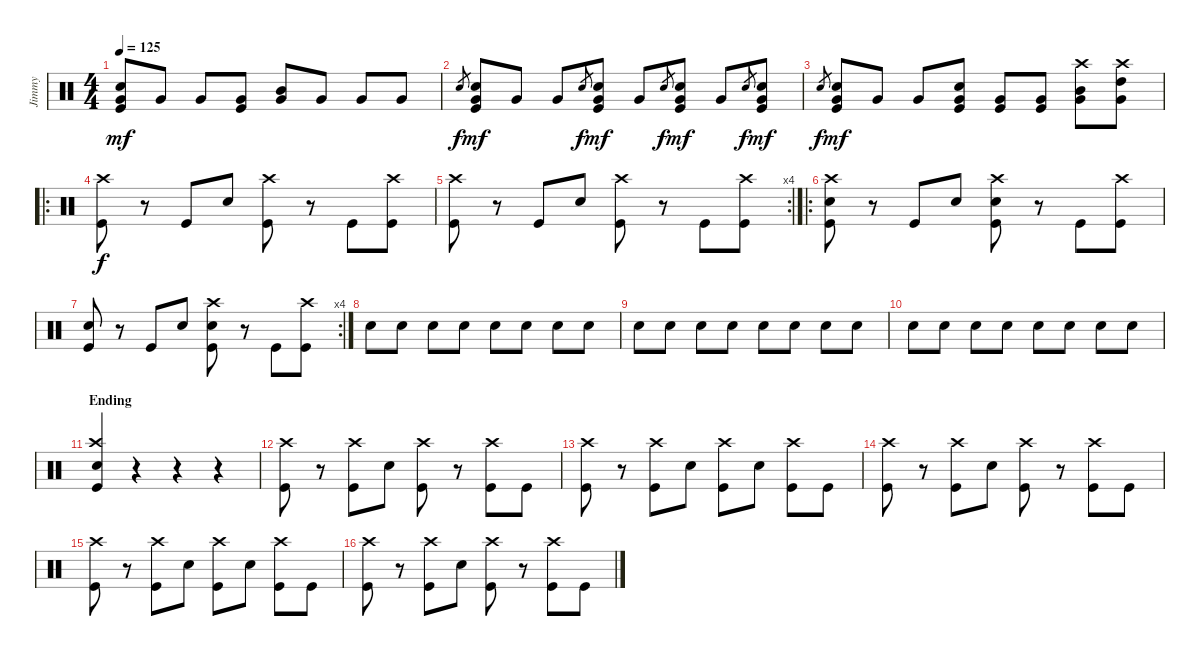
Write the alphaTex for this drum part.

\track ("Jimmy" "Jimmy") {instrument percussion}
\staff {score}
\articulation defaults
\ts (4 4)
\tempo 125
\clef neutral
\ks c
("Kick (hit)" "Electric Snare (hit)" "Very Low Tom (hit)").8{dy mf} "Very Low Tom (hit)".8 "Very Low Tom (hit)".8 ("Kick (hit)" "Very Low Tom (hit)").8 ("Mid Tom (hit)" "Very Low Tom (hit)").8 "Very Low Tom (hit)".8 "Very Low Tom (hit)".8 "Very Low Tom (hit)".8 |
"Electric Snare (hit)".8{gr dy f} ("Kick (hit)" "Electric Snare (hit)" "Very Low Tom (hit)").8{dy mf} "Very Low Tom (hit)".8 "Very Low Tom (hit)".8 "Electric Snare (hit)".8{gr dy f} ("Kick (hit)" "Electric Snare (hit)" "Very Low Tom (hit)").8{dy mf} "Very Low Tom (hit)".8 "Electric Snare (hit)".8{gr dy f} ("Kick (hit)" "Electric Snare (hit)" "Very Low Tom (hit)").8{dy mf} "Very Low Tom (hit)".8 "Electric Snare (hit)".8{gr dy f} ("Kick (hit)" "Electric Snare (hit)" "Very Low Tom (hit)").8{dy mf} |
"Electric Snare (hit)".8{gr dy f} ("Kick (hit)" "Electric Snare (hit)" "Very Low Tom (hit)").8{dy mf} "Very Low Tom (hit)".8 "Very Low Tom (hit)".8 ("Kick (hit)" "Electric Snare (hit)" "Very Low Tom (hit)").8 ("Kick (hit)" "Very Low Tom (hit)").8 ("Kick (hit)" "Very Low Tom (hit)").8 ("Crash high (hit)" "Mid Tom (hit)" "Very Low Tom (hit)").8 ("Crash high (hit)" "High Tom (hit)" "Very Low Tom (hit)").8 |
\ro
("Crash high (hit)" "Kick (hit)").8{dy f} r.8 "Kick (hit)".8 "Electric Snare (hit)".8 ("Crash high (hit)" "Kick (hit)").8 r.8 "Kick (hit)".8 ("Crash high (hit)" "Kick (hit)").8 |
\rc 4
("Crash high (hit)" "Kick (hit)").8 r.8 "Kick (hit)".8 "Electric Snare (hit)".8 ("Crash high (hit)" "Kick (hit)").8 r.8 "Kick (hit)".8 ("Crash high (hit)" "Kick (hit)").8 |
\ro
("Crash high (hit)" "Electric Snare (hit)" "Kick (hit)").8 r.8 "Kick (hit)".8 "Electric Snare (hit)".8 ("Crash high (hit)" "Electric Snare (hit)" "Kick (hit)").8 r.8 "Kick (hit)".8 ("Crash high (hit)" "Kick (hit)").8 |
\rc 4
("Electric Snare (hit)" "Kick (hit)").8 r.8 "Kick (hit)".8 "Electric Snare (hit)".8 ("Crash high (hit)" "Electric Snare (hit)" "Kick (hit)").8 r.8 "Kick (hit)".8 ("Crash high (hit)" "Kick (hit)").8 |
"Snare (hit) 2".8 "Snare (hit) 2".8 "Snare (hit) 2".8 "Snare (hit) 2".8 "Snare (hit) 2".8 "Snare (hit) 2".8 "Snare (hit) 2".8 "Snare (hit) 2".8 |
"Snare (hit) 2".8 "Snare (hit) 2".8 "Snare (hit) 2".8 "Snare (hit) 2".8 "Snare (hit) 2".8 "Snare (hit) 2".8 "Snare (hit) 2".8 "Snare (hit) 2".8 |
"Snare (hit) 2".8 "Snare (hit) 2".8 "Snare (hit) 2".8 "Snare (hit) 2".8 "Snare (hit) 2".8 "Snare (hit) 2".8 "Snare (hit) 2".8 "Snare (hit) 2".8 |
\section ("" "Ending")
("Crash high (hit)" "Snare (hit) 2" "Kick (hit)").4 r.4 r.4 r.4 |
("Crash high (hit)" "Kick (hit)").8 r.8 ("Crash high (hit)" "Kick (hit)").8 "Electric Snare (hit)".8 ("Crash high (hit)" "Kick (hit)").8 r.8 ("Crash high (hit)" "Kick (hit)").8 "Kick (hit)".8 |
("Crash high (hit)" "Kick (hit)").8 r.8 ("Crash high (hit)" "Kick (hit)").8 "Electric Snare (hit)".8 ("Crash high (hit)" "Kick (hit)").8 "Electric Snare (hit)".8 ("Crash high (hit)" "Kick (hit)").8 "Kick (hit)".8 |
("Crash high (hit)" "Kick (hit)").8 r.8 ("Crash high (hit)" "Kick (hit)").8 "Electric Snare (hit)".8 ("Crash high (hit)" "Kick (hit)").8 r.8 ("Crash high (hit)" "Kick (hit)").8 "Kick (hit)".8 |
("Crash high (hit)" "Kick (hit)").8 r.8 ("Crash high (hit)" "Kick (hit)").8 "Electric Snare (hit)".8 ("Crash high (hit)" "Kick (hit)").8 "Electric Snare (hit)".8 ("Crash high (hit)" "Kick (hit)").8 "Kick (hit)".8 |
("Crash high (hit)" "Kick (hit)").8 r.8 ("Crash high (hit)" "Kick (hit)").8 "Electric Snare (hit)".8 ("Crash high (hit)" "Kick (hit)").8 r.8 ("Crash high (hit)" "Kick (hit)").8 "Kick (hit)".8
